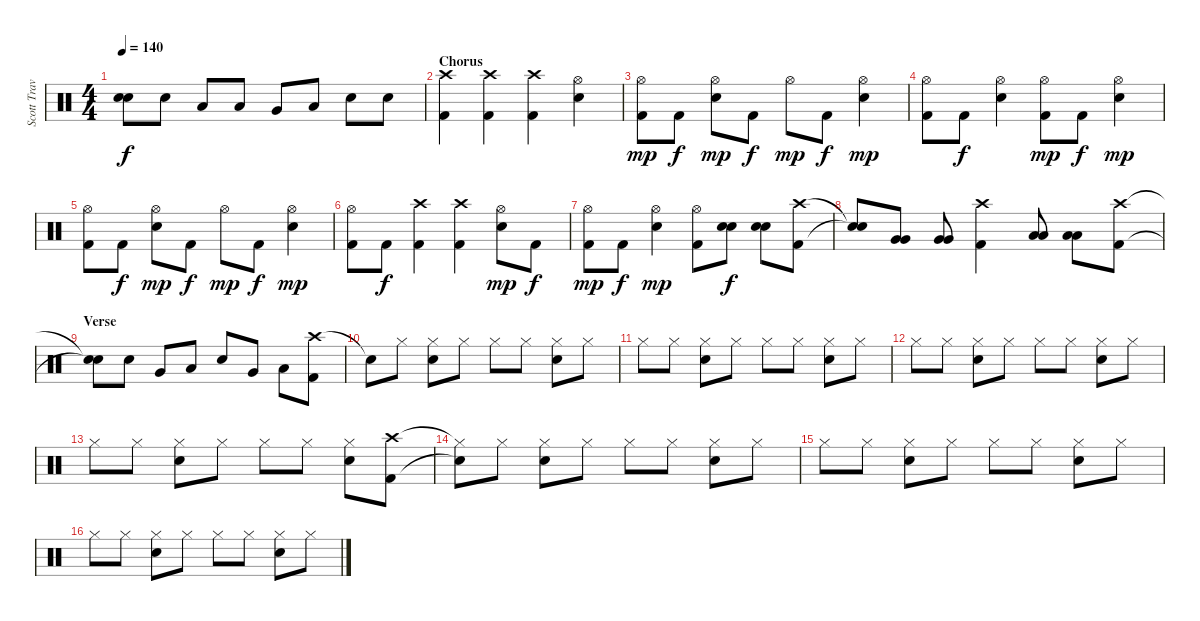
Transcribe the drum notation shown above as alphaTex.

\track ("Scott Travis" "Scott Trav") {instrument percussion}
\staff {score}
\articulation defaults
\ts (4 4)
\tempo 140
\clef neutral
\ks c
("Snare (hit)"{t} "Snare (hit)"{t}).8{dy f} "Snare (hit) 2".8 "Low Tom (hit)".8 "Low Tom (hit)".8 "Very Low Tom (hit)".8 "Low Floor Tom (hit)".8 "Snare (hit) 2".8 "Snare (hit) 2".8 |
\section ("" "Chorus")
("Crash high (hit)" "Kick (hit) 2").4 ("Crash high (hit)" "Kick (hit) 2").4 ("Crash high (hit)" "Kick (hit) 2").4 ("Hi-Hat (open)" "Snare (hit) 2").4 |
("Hi-Hat (open)" "Kick (hit) 2").8{dy mp} "Kick (hit) 2".8{dy f} ("Hi-Hat (open)" "Snare (hit) 2").8{dy mp} "Kick (hit) 2".8{dy f} "Hi-Hat (open)".8{dy mp} "Kick (hit) 2".8{dy f} ("Hi-Hat (open)" "Snare (hit) 2").4{dy mp} |
("Hi-Hat (open)" "Kick (hit) 2").8 "Kick (hit) 2".8{dy f} ("Hi-Hat (open)" "Snare (hit) 2").4 ("Hi-Hat (open)" "Kick (hit) 2").8{dy mp} "Kick (hit) 2".8{dy f} ("Hi-Hat (open)" "Snare (hit) 2").4{dy mp} |
("Hi-Hat (open)" "Kick (hit) 2").8 "Kick (hit) 2".8{dy f} ("Hi-Hat (open)" "Snare (hit) 2").8{dy mp} "Kick (hit) 2".8{dy f} "Hi-Hat (open)".8{dy mp} "Kick (hit) 2".8{dy f} ("Hi-Hat (open)" "Snare (hit) 2").4{dy mp} |
("Hi-Hat (open)" "Kick (hit) 2").8 "Kick (hit) 2".8{dy f} ("Crash high (hit)" "Kick (hit) 2").4 ("Crash high (hit)" "Kick (hit) 2").4 ("Hi-Hat (open)" "Snare (hit) 2").8{dy mp} "Kick (hit) 2".8{dy f} |
("Hi-Hat (open)" "Kick (hit) 2").8{dy mp} "Kick (hit) 2".8{dy f} ("Hi-Hat (open)" "Snare (hit) 2").4{dy mp} ("Hi-Hat (open)" "Kick (hit) 2").8 ("Snare (hit) 2" "Snare (hit) 2").8{dy f} ("Snare (hit) 2" "Snare (hit) 2").8 ("Crash high (hit)" "Kick (hit) 2").8 |
("Snare (hit)"{t} "Snare (hit)"{t}).8 ("Very Low Tom (hit)" "Very Low Tom (hit)").8 ("Very Low Tom (hit)" "Very Low Tom (hit)").8 ("Crash high (hit)" "Kick (hit) 2").4 ("Low Tom (hit)" "Low Tom (hit)").8 ("Low Tom (hit)" "Low Tom (hit)").8 ("Crash high (hit)" "Kick (hit) 2").8 |
\section ("" "Verse")
("Snare (hit)"{t} "Snare (hit)"{t}).8 "Snare (hit) 2".8 "Very Low Tom (hit)".8 "Low Tom (hit)".8 "Snare (hit) 2".8 "Very Low Tom (hit)".8 "Low Floor Tom (hit)".8 ("Crash high (hit)" "Kick (hit) 2").8 |
"Snare (hit)"{t}.8 "Hi-Hat (closed)".8 ("Hi-Hat (closed)" "Snare (hit) 2").8 "Hi-Hat (closed)".8 "Hi-Hat (closed)".8 "Hi-Hat (closed)".8 ("Hi-Hat (closed)" "Snare (hit) 2").8 "Hi-Hat (closed)".8 |
"Hi-Hat (closed)".8 "Hi-Hat (closed)".8 ("Hi-Hat (closed)" "Snare (hit) 2").8 "Hi-Hat (closed)".8 "Hi-Hat (closed)".8 "Hi-Hat (closed)".8 ("Hi-Hat (closed)" "Snare (hit) 2").8 "Hi-Hat (closed)".8 |
"Hi-Hat (closed)".8 "Hi-Hat (closed)".8 ("Hi-Hat (closed)" "Snare (hit) 2").8 "Hi-Hat (closed)".8 "Hi-Hat (closed)".8 "Hi-Hat (closed)".8 ("Hi-Hat (closed)" "Snare (hit) 2").8 "Hi-Hat (closed)".8 |
"Hi-Hat (closed)".8 "Hi-Hat (closed)".8 ("Hi-Hat (closed)" "Snare (hit) 2").8 "Hi-Hat (closed)".8 "Hi-Hat (closed)".8 "Hi-Hat (closed)".8 ("Hi-Hat (closed)" "Snare (hit) 2").8 ("Crash high (hit)" "Kick (hit) 2").8 |
("Hi-Hat (closed)"{t} "Snare (hit)"{t}).8 "Hi-Hat (closed)".8 ("Hi-Hat (closed)" "Snare (hit) 2").8 "Hi-Hat (closed)".8 "Hi-Hat (closed)".8 "Hi-Hat (closed)".8 ("Hi-Hat (closed)" "Snare (hit) 2").8 "Hi-Hat (closed)".8 |
"Hi-Hat (closed)".8 "Hi-Hat (closed)".8 ("Hi-Hat (closed)" "Snare (hit) 2").8 "Hi-Hat (closed)".8 "Hi-Hat (closed)".8 "Hi-Hat (closed)".8 ("Hi-Hat (closed)" "Snare (hit) 2").8 "Hi-Hat (closed)".8 |
"Hi-Hat (closed)".8 "Hi-Hat (closed)".8 ("Hi-Hat (closed)" "Snare (hit) 2").8 "Hi-Hat (closed)".8 "Hi-Hat (closed)".8 "Hi-Hat (closed)".8 ("Hi-Hat (closed)" "Snare (hit) 2").8 "Hi-Hat (closed)".8
